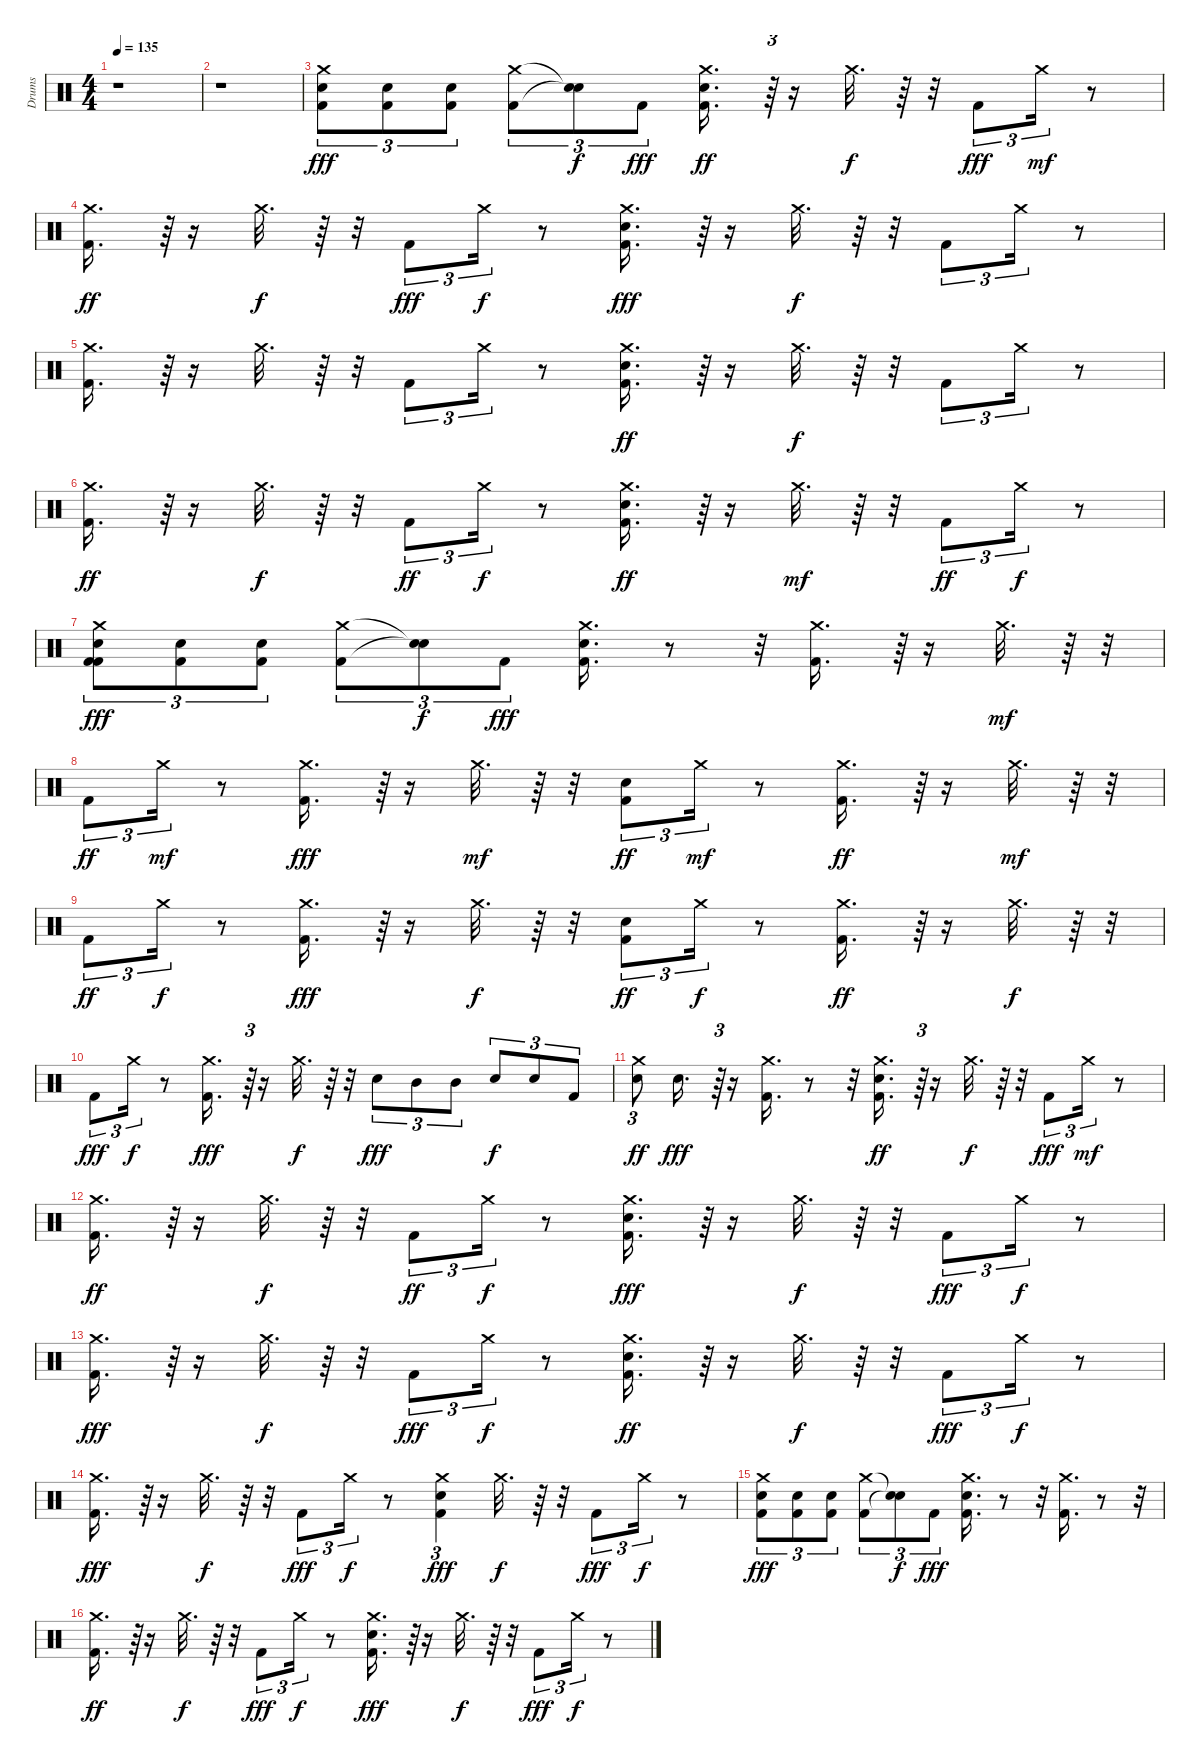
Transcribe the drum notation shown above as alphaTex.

\track ("Drums" "Drums") {instrument percussion}
\staff {score}
\articulation defaults
\ts (4 4)
\tempo 135
\clef neutral
\ks c
r.1{dy fff} |
r.1 |
("Crash medium (hit)" "Snare (hit) 2" "Kick (hit) 2").8{tu (3 2)} ("Snare (hit) 2" "Kick (hit) 2").8{tu (3 2)} ("Kick (hit) 2" "Snare (hit) 2").8{tu (3 2)} ("Crash medium (hit)" "Kick (hit) 2").8{tu (3 2)} ("Snare (hit)"{t} "Snare (hit)"{t}).8{tu (3 2) dy f} "Kick (hit) 2".8{tu (3 2) dy fff} ("Crash medium (hit)" "Kick (hit) 2" "Snare (hit) 2").16{d dy ff} r.64{tu (3 2)} r.16 "Crash medium (hit)".32{d dy f} r.64 r.32 "Kick (hit) 2".8{tu (3 2) dy fff} "Crash medium (hit)".16{tu (3 2) dy mf} r.8 |
("Crash medium (hit)" "Kick (hit) 2").16{d dy ff} r.64{tu (3 2)} r.16 "Crash medium (hit)".32{d dy f} r.64 r.32 "Kick (hit) 2".8{tu (3 2) dy fff} "Crash medium (hit)".16{tu (3 2) dy f} r.8 ("Crash medium (hit)" "Snare (hit) 2" "Kick (hit) 2").16{d dy fff} r.64{tu (3 2)} r.16 "Crash medium (hit)".32{d dy f} r.64 r.32 "Kick (hit) 2".8{tu (3 2)} "Crash medium (hit)".16{tu (3 2)} r.8 |
("Crash medium (hit)" "Kick (hit) 2").16{d} r.64{tu (3 2)} r.16 "Crash medium (hit)".32{d} r.64 r.32 "Kick (hit) 2".8{tu (3 2)} "Crash medium (hit)".16{tu (3 2)} r.8 ("Crash medium (hit)" "Kick (hit) 2" "Snare (hit) 2").16{d dy ff} r.64{tu (3 2)} r.16 "Crash medium (hit)".32{d dy f} r.64 r.32 "Kick (hit) 2".8{tu (3 2)} "Crash medium (hit)".16{tu (3 2)} r.8 |
("Crash medium (hit)" "Kick (hit) 2").16{d dy ff} r.64{tu (3 2)} r.16 "Crash medium (hit)".32{d dy f} r.64 r.32 "Kick (hit) 2".8{tu (3 2) dy ff} "Crash medium (hit)".16{tu (3 2) dy f} r.8 ("Crash medium (hit)" "Kick (hit) 2" "Snare (hit) 2").16{d dy ff} r.64{tu (3 2)} r.16 "Crash medium (hit)".32{d dy mf} r.64 r.32 "Kick (hit) 2".8{tu (3 2) dy ff} "Crash medium (hit)".16{tu (3 2) dy f} r.8 |
("Crash medium (hit)" "Kick (hit) 2" "Kick (hit) 2" "Snare (hit) 2").8{tu (3 2) dy fff} ("Kick (hit) 2" "Snare (hit) 2").8{tu (3 2)} ("Snare (hit) 2" "Kick (hit) 2").8{tu (3 2)} ("Crash medium (hit)" "Kick (hit) 2").8{tu (3 2)} ("Snare (hit)"{t} "Snare (hit)"{t}).8{tu (3 2) dy f} "Kick (hit) 2".8{tu (3 2) dy fff} ("Crash medium (hit)" "Snare (hit) 2" "Kick (hit) 2").16{d} r.8 r.32 ("Crash medium (hit)" "Kick (hit) 2").16{d} r.64{tu (3 2)} r.16 "Crash medium (hit)".32{d dy mf} r.64 r.32 |
"Kick (hit) 2".8{tu (3 2) dy ff} "Crash medium (hit)".16{tu (3 2) dy mf} r.8 ("Crash medium (hit)" "Kick (hit) 2").16{d dy fff} r.64{tu (3 2)} r.16 "Crash medium (hit)".32{d dy mf} r.64 r.32 ("Snare (hit) 2" "Kick (hit) 2").8{tu (3 2) dy ff} "Crash medium (hit)".16{tu (3 2) dy mf} r.8 ("Crash medium (hit)" "Kick (hit) 2").16{d dy ff} r.64{tu (3 2)} r.16 "Crash medium (hit)".32{d dy mf} r.64 r.32 |
"Kick (hit) 2".8{tu (3 2) dy ff} "Crash medium (hit)".16{tu (3 2) dy f} r.8 ("Crash medium (hit)" "Kick (hit) 2").16{d dy fff} r.64{tu (3 2)} r.16 "Crash medium (hit)".32{d dy f} r.64 r.32 ("Kick (hit) 2" "Snare (hit) 2").8{tu (3 2) dy ff} "Crash medium (hit)".16{tu (3 2) dy f} r.8 ("Crash medium (hit)" "Kick (hit) 2").16{d dy ff} r.64{tu (3 2)} r.16 "Crash medium (hit)".32{d dy f} r.64 r.32 |
"Kick (hit) 2".8{tu (3 2) dy fff} "Crash medium (hit)".16{tu (3 2) dy f} r.8 ("Crash medium (hit)" "Kick (hit) 2").16{d dy fff} r.64{tu (3 2)} r.16 "Crash medium (hit)".32{d dy f} r.64 r.32 "Snare (hit) 2".8{tu (3 2) dy fff} "Mid Tom (hit)".8{tu (3 2)} "Mid Tom (hit)".8{tu (3 2)} "Snare (hit) 2".8{tu (3 2) dy f} "Snare (hit) 2".8{tu (3 2)} "Kick (hit) 2".8{tu (3 2)} |
("Crash medium (hit)" "Snare (hit) 2").8{tu (3 2) dy ff} "Snare (hit) 2".16{d dy fff} r.64{tu (3 2)} r.16 ("Crash medium (hit)" "Kick (hit) 2").16{d} r.8 r.32 ("Crash medium (hit)" "Kick (hit) 2" "Snare (hit) 2").16{d dy ff} r.64{tu (3 2)} r.16 "Crash medium (hit)".32{d dy f} r.64 r.32 "Kick (hit) 2".8{tu (3 2) dy fff} "Crash medium (hit)".16{tu (3 2) dy mf} r.8 |
("Crash medium (hit)" "Kick (hit) 2").16{d dy ff} r.64{tu (3 2)} r.16 "Crash medium (hit)".32{d dy f} r.64 r.32 "Kick (hit) 2".8{tu (3 2) dy ff} "Crash medium (hit)".16{tu (3 2) dy f} r.8 ("Crash medium (hit)" "Snare (hit) 2" "Kick (hit) 2").16{d dy fff} r.64{tu (3 2)} r.16 "Crash medium (hit)".32{d dy f} r.64 r.32 "Kick (hit) 2".8{tu (3 2) dy fff} "Crash medium (hit)".16{tu (3 2) dy f} r.8 |
("Crash medium (hit)" "Kick (hit) 2").16{d dy fff} r.64{tu (3 2)} r.16 "Crash medium (hit)".32{d dy f} r.64 r.32 "Kick (hit) 2".8{tu (3 2) dy fff} "Crash medium (hit)".16{tu (3 2) dy f} r.8 ("Crash medium (hit)" "Kick (hit) 2" "Snare (hit) 2").16{d dy ff} r.64{tu (3 2)} r.16 "Crash medium (hit)".32{d dy f} r.64 r.32 "Kick (hit) 2".8{tu (3 2) dy fff} "Crash medium (hit)".16{tu (3 2) dy f} r.8 |
("Crash medium (hit)" "Kick (hit) 2").16{d dy fff} r.64{tu (3 2)} r.16 "Crash medium (hit)".32{d dy f} r.64 r.32 "Kick (hit) 2".8{tu (3 2) dy fff} "Crash medium (hit)".16{tu (3 2) dy f} r.8 ("Crash medium (hit)" "Snare (hit) 2" "Kick (hit) 2").4{tu (3 2) dy fff} "Crash medium (hit)".32{d dy f} r.64 r.32 "Kick (hit) 2".8{tu (3 2) dy fff} "Crash medium (hit)".16{tu (3 2) dy f} r.8 |
("Crash medium (hit)" "Kick (hit) 2" "Snare (hit) 2").8{tu (3 2) dy fff} ("Snare (hit) 2" "Kick (hit) 2").8{tu (3 2)} ("Snare (hit) 2" "Kick (hit) 2").8{tu (3 2)} ("Crash medium (hit)" "Kick (hit) 2").8{tu (3 2)} ("Snare (hit)"{t} "Snare (hit)"{t}).8{tu (3 2) dy f} "Kick (hit) 2".8{tu (3 2) dy fff} ("Crash medium (hit)" "Snare (hit) 2" "Kick (hit) 2").16{d} r.8 r.32 ("Crash medium (hit)" "Kick (hit) 2").16{d} r.8 r.32 |
("Crash medium (hit)" "Kick (hit) 2").16{d dy ff} r.64{tu (3 2)} r.16 "Crash medium (hit)".32{d dy f} r.64 r.32 "Kick (hit) 2".8{tu (3 2) dy fff} "Crash medium (hit)".16{tu (3 2) dy f} r.8 ("Crash medium (hit)" "Snare (hit) 2" "Kick (hit) 2").16{d dy fff} r.64{tu (3 2)} r.16 "Crash medium (hit)".32{d dy f} r.64 r.32 "Kick (hit) 2".8{tu (3 2) dy fff} "Crash medium (hit)".16{tu (3 2) dy f} r.8
